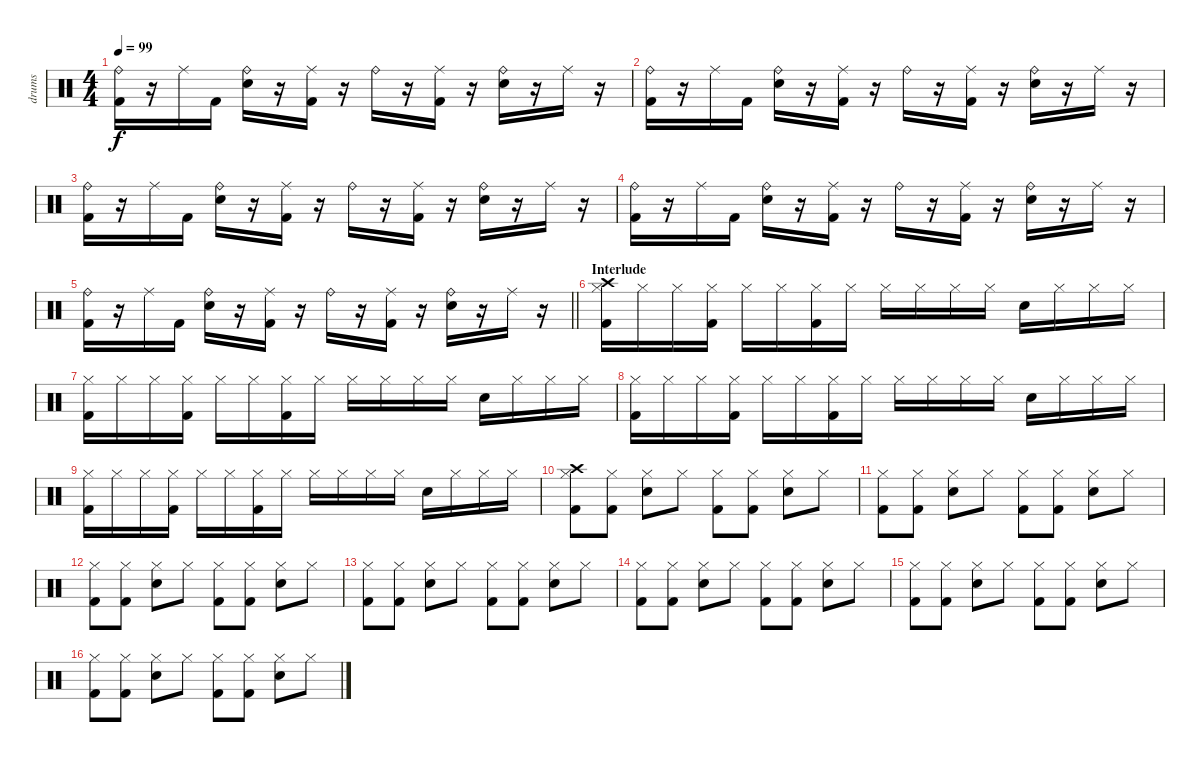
\track ("drums" "drums") {instrument percussion}
\staff {score}
\articulation defaults
\ts (4 4)
\tempo 99
\clef neutral
\ks c
("Ride (bell)" "Kick (hit) 2").16{dy f} r.16 "Ride (middle)".16 "Kick (hit) 2".16 ("Ride (bell)" "Snare (hit) 2").16 r.16 ("Ride (middle)" "Kick (hit) 2").16 r.16 "Ride (bell)"{nh}.16 r.16 ("Ride (middle)" "Kick (hit) 2").16 r.16 ("Ride (bell)" "Snare (hit) 2").16 r.16 "Ride (middle)".16 r.16 |
("Ride (bell)" "Kick (hit) 2").16 r.16 "Ride (middle)".16 "Kick (hit) 2".16 ("Ride (bell)" "Snare (hit) 2").16 r.16 ("Ride (middle)" "Kick (hit) 2").16 r.16 "Ride (bell)"{nh}.16 r.16 ("Ride (middle)" "Kick (hit) 2").16 r.16 ("Ride (bell)" "Snare (hit) 2").16 r.16 "Ride (middle)".16 r.16 |
("Ride (bell)" "Kick (hit) 2").16 r.16 "Ride (middle)".16 "Kick (hit) 2".16 ("Ride (bell)" "Snare (hit) 2").16 r.16 ("Ride (middle)" "Kick (hit) 2").16 r.16 "Ride (bell)"{nh}.16 r.16 ("Ride (middle)" "Kick (hit) 2").16 r.16 ("Ride (bell)" "Snare (hit) 2").16 r.16 "Ride (middle)".16 r.16 |
("Ride (bell)" "Kick (hit) 2").16 r.16 "Ride (middle)".16 "Kick (hit) 2".16 ("Ride (bell)" "Snare (hit) 2").16 r.16 ("Ride (middle)" "Kick (hit) 2").16 r.16 "Ride (bell)"{nh}.16 r.16 ("Ride (middle)" "Kick (hit) 2").16 r.16 ("Ride (bell)" "Snare (hit) 2").16 r.16 "Ride (middle)".16 r.16 |
\barLineRight lightlight
("Ride (bell)" "Kick (hit) 2").16 r.16 "Ride (middle)".16 "Kick (hit) 2".16 ("Ride (bell)" "Snare (hit) 2").16 r.16 ("Ride (middle)" "Kick (hit) 2").16 r.16 "Ride (bell)"{nh}.16 r.16 ("Ride (middle)" "Kick (hit) 2").16 r.16 ("Ride (bell)" "Snare (hit) 2").16 r.16 "Ride (middle)".16 r.16 |
\section ("" "Interlude")
("Crash high (hit)" "Hi-Hat (closed)" "Kick (hit) 2").16 "Hi-Hat (closed)".16 "Hi-Hat (closed)".16 ("Hi-Hat (closed)" "Kick (hit) 2").16 "Hi-Hat (closed)".16 "Hi-Hat (closed)".16 ("Hi-Hat (closed)" "Kick (hit) 2").16 "Hi-Hat (closed)".16 "Hi-Hat (closed)"{nh}.16 "Hi-Hat (closed)".16 "Hi-Hat (closed)".16 "Hi-Hat (closed)".16 "Snare (hit) 2".16 "Hi-Hat (closed)".16 "Hi-Hat (closed)".16 "Hi-Hat (closed)".16 |
("Hi-Hat (closed)" "Kick (hit) 2").16 "Hi-Hat (closed)".16 "Hi-Hat (closed)".16 ("Hi-Hat (closed)" "Kick (hit) 2").16 "Hi-Hat (closed)".16 "Hi-Hat (closed)".16 ("Hi-Hat (closed)" "Kick (hit) 2").16 "Hi-Hat (closed)".16 "Hi-Hat (closed)"{nh}.16 "Hi-Hat (closed)".16 "Hi-Hat (closed)".16 "Hi-Hat (closed)".16 "Snare (hit) 2".16 "Hi-Hat (closed)".16 "Hi-Hat (closed)".16 "Hi-Hat (closed)".16 |
("Hi-Hat (closed)" "Kick (hit) 2").16 "Hi-Hat (closed)".16 "Hi-Hat (closed)".16 ("Hi-Hat (closed)" "Kick (hit) 2").16 "Hi-Hat (closed)".16 "Hi-Hat (closed)".16 ("Hi-Hat (closed)" "Kick (hit) 2").16 "Hi-Hat (closed)".16 "Hi-Hat (closed)"{nh}.16 "Hi-Hat (closed)".16 "Hi-Hat (closed)".16 "Hi-Hat (closed)".16 "Snare (hit) 2".16 "Hi-Hat (closed)".16 "Hi-Hat (closed)".16 "Hi-Hat (closed)".16 |
("Hi-Hat (closed)" "Kick (hit) 2").16 "Hi-Hat (closed)".16 "Hi-Hat (closed)".16 ("Hi-Hat (closed)" "Kick (hit) 2").16 "Hi-Hat (closed)".16 "Hi-Hat (closed)".16 ("Hi-Hat (closed)" "Kick (hit) 2").16 "Hi-Hat (closed)".16 "Hi-Hat (closed)"{nh}.16 "Hi-Hat (closed)".16 "Hi-Hat (closed)".16 "Hi-Hat (closed)".16 "Snare (hit) 2".16 "Hi-Hat (closed)".16 "Hi-Hat (closed)".16 "Hi-Hat (closed)".16 |
("Crash high (hit)" "Hi-Hat (closed)" "Kick (hit) 2").8 ("Hi-Hat (closed)" "Kick (hit) 2").8 ("Hi-Hat (closed)" "Snare (hit) 2").8 "Hi-Hat (closed)".8 ("Hi-Hat (closed)" "Kick (hit) 2").8 ("Hi-Hat (closed)" "Kick (hit) 2").8 ("Hi-Hat (closed)" "Snare (hit) 2").8 "Hi-Hat (closed)".8 |
("Hi-Hat (closed)" "Kick (hit) 2").8 ("Hi-Hat (closed)" "Kick (hit) 2").8 ("Hi-Hat (closed)" "Snare (hit) 2").8 "Hi-Hat (closed)".8 ("Hi-Hat (closed)" "Kick (hit) 2").8 ("Hi-Hat (closed)" "Kick (hit) 2").8 ("Hi-Hat (closed)" "Snare (hit) 2").8 "Hi-Hat (closed)".8 |
("Hi-Hat (closed)" "Kick (hit) 2").8 ("Hi-Hat (closed)" "Kick (hit) 2").8 ("Hi-Hat (closed)" "Snare (hit) 2").8 "Hi-Hat (closed)".8 ("Hi-Hat (closed)" "Kick (hit) 2").8 ("Hi-Hat (closed)" "Kick (hit) 2").8 ("Hi-Hat (closed)" "Snare (hit) 2").8 "Hi-Hat (closed)".8 |
("Hi-Hat (closed)" "Kick (hit) 2").8 ("Hi-Hat (closed)" "Kick (hit) 2").8 ("Hi-Hat (closed)" "Snare (hit) 2").8 "Hi-Hat (closed)".8 ("Hi-Hat (closed)" "Kick (hit) 2").8 ("Hi-Hat (closed)" "Kick (hit) 2").8 ("Hi-Hat (closed)" "Snare (hit) 2").8 "Hi-Hat (closed)".8 |
("Hi-Hat (closed)" "Kick (hit) 2").8 ("Hi-Hat (closed)" "Kick (hit) 2").8 ("Hi-Hat (closed)" "Snare (hit) 2").8 "Hi-Hat (closed)".8 ("Hi-Hat (closed)" "Kick (hit) 2").8 ("Hi-Hat (closed)" "Kick (hit) 2").8 ("Hi-Hat (closed)" "Snare (hit) 2").8 "Hi-Hat (closed)".8 |
("Hi-Hat (closed)" "Kick (hit) 2").8 ("Hi-Hat (closed)" "Kick (hit) 2").8 ("Hi-Hat (closed)" "Snare (hit) 2").8 "Hi-Hat (closed)".8 ("Hi-Hat (closed)" "Kick (hit) 2").8 ("Hi-Hat (closed)" "Kick (hit) 2").8 ("Hi-Hat (closed)" "Snare (hit) 2").8 "Hi-Hat (closed)".8 |
("Hi-Hat (closed)" "Kick (hit) 2").8 ("Hi-Hat (closed)" "Kick (hit) 2").8 ("Hi-Hat (closed)" "Snare (hit) 2").8 "Hi-Hat (closed)".8 ("Hi-Hat (closed)" "Kick (hit) 2").8 ("Hi-Hat (closed)" "Kick (hit) 2").8 ("Hi-Hat (closed)" "Snare (hit) 2").8 "Hi-Hat (closed)".8
